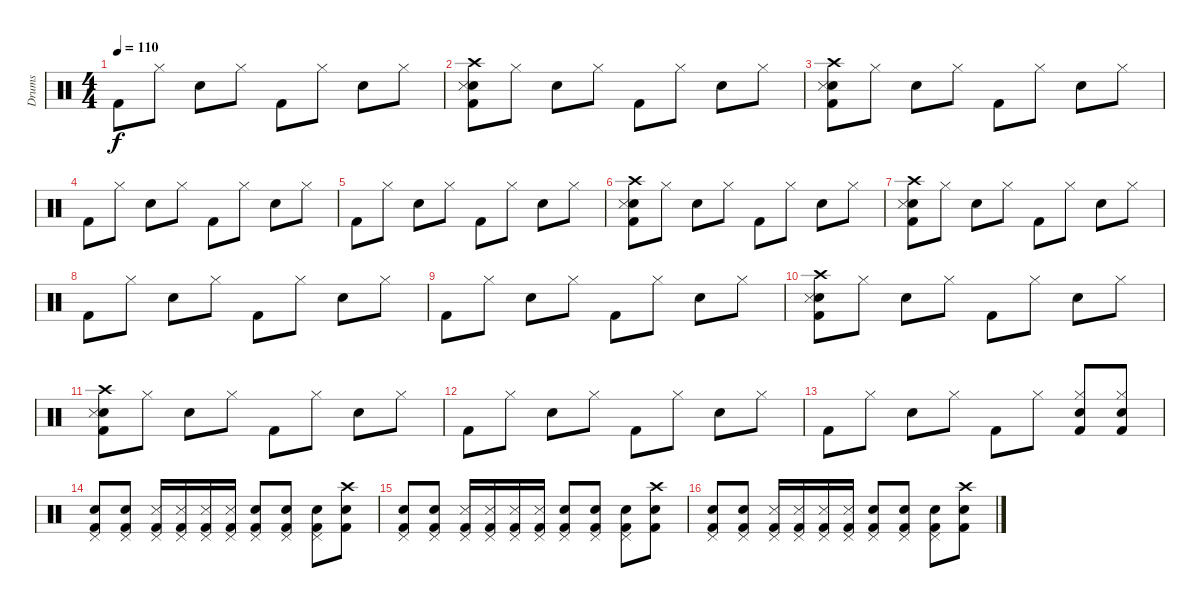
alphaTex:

\track ("Drums" "Drums") {instrument percussion}
\staff {score}
\articulation defaults
\ts (4 4)
\tempo 110
\clef neutral
\ks c "Kick (hit) 2".8{dy f} "Hi-Hat (closed)".8 "Snare (hit) 2".8 "Hi-Hat (closed)".8 "Kick (hit) 2".8 "Hi-Hat (closed)".8 "Snare (hit) 2".8 "Hi-Hat (closed)".8
|
("Kick (hit) 2" "Snare (hit) 2" "Crash high (hit)" "Snare (side stick) 3").8 "Hi-Hat (closed)".8 "Snare (hit) 2".8 "Hi-Hat (closed)".8 "Kick (hit) 2".8 "Hi-Hat (closed)".8 "Snare (hit) 2".8 "Hi-Hat (closed)".8 |
("Kick (hit) 2" "Snare (hit) 2" "Crash high (hit)" "Snare (side stick) 3").8 "Hi-Hat (closed)".8 "Snare (hit) 2".8 "Hi-Hat (closed)".8 "Kick (hit) 2".8 "Hi-Hat (closed)".8 "Snare (hit) 2".8 "Hi-Hat (closed)".8 |
"Kick (hit) 2".8 "Hi-Hat (closed)".8 "Snare (hit) 2".8 "Hi-Hat (closed)".8 "Kick (hit) 2".8 "Hi-Hat (closed)".8 "Snare (hit) 2".8 "Hi-Hat (closed)".8 |
"Kick (hit) 2".8 "Hi-Hat (closed)".8 "Snare (hit) 2".8 "Hi-Hat (closed)".8 "Kick (hit) 2".8 "Hi-Hat (closed)".8 "Snare (hit) 2".8 "Hi-Hat (closed)".8 |
("Kick (hit) 2" "Snare (hit) 2" "Crash high (hit)" "Snare (side stick) 3").8 "Hi-Hat (closed)".8 "Snare (hit) 2".8 "Hi-Hat (closed)".8 "Kick (hit) 2".8 "Hi-Hat (closed)".8 "Snare (hit) 2".8 "Hi-Hat (closed)".8 |
("Kick (hit) 2" "Snare (hit) 2" "Crash high (hit)" "Snare (side stick) 3").8 "Hi-Hat (closed)".8 "Snare (hit) 2".8 "Hi-Hat (closed)".8 "Kick (hit) 2".8 "Hi-Hat (closed)".8 "Snare (hit) 2".8 "Hi-Hat (closed)".8 |
"Kick (hit) 2".8 "Hi-Hat (closed)".8 "Snare (hit) 2".8 "Hi-Hat (closed)".8 "Kick (hit) 2".8 "Hi-Hat (closed)".8 "Snare (hit) 2".8 "Hi-Hat (closed)".8 |
"Kick (hit) 2".8 "Hi-Hat (closed)".8 "Snare (hit) 2".8 "Hi-Hat (closed)".8 "Kick (hit) 2".8 "Hi-Hat (closed)".8 "Snare (hit) 2".8 "Hi-Hat (closed)".8 |
("Kick (hit) 2" "Snare (hit) 2" "Crash high (hit)" "Snare (side stick) 3").8 "Hi-Hat (closed)".8 "Snare (hit) 2".8 "Hi-Hat (closed)".8 "Kick (hit) 2".8 "Hi-Hat (closed)".8 "Snare (hit) 2".8 "Hi-Hat (closed)".8 |
("Kick (hit) 2" "Snare (hit) 2" "Crash high (hit)" "Snare (side stick) 3").8 "Hi-Hat (closed)".8 "Snare (hit) 2".8 "Hi-Hat (closed)".8 "Kick (hit) 2".8 "Hi-Hat (closed)".8 "Snare (hit) 2".8 "Hi-Hat (closed)".8 |
"Kick (hit) 2".8 "Hi-Hat (closed)".8 "Snare (hit) 2".8 "Hi-Hat (closed)".8 "Kick (hit) 2".8 "Hi-Hat (closed)".8 "Snare (hit) 2".8 "Hi-Hat (closed)".8 |
"Kick (hit) 2".8 "Hi-Hat (closed)".8 "Snare (hit) 2".8 "Hi-Hat (closed)".8 "Kick (hit) 2".8 "Hi-Hat (closed)".8 ("Kick (hit) 2" "Hi-Hat (closed)" "Snare (hit) 2").8 ("Kick (hit) 2" "Hi-Hat (closed)" "Snare (hit) 2").8 |
("Kick (hit) 2" "Snare (hit) 2" "Pedal Hi-Hat (hit)").8 ("Kick (hit) 2" "Snare (hit) 2" "Pedal Hi-Hat (hit)").8 ("Kick (hit) 2" "Snare (side stick) 3" "Pedal Hi-Hat (hit)").16 ("Kick (hit) 2" "Snare (side stick) 3" "Pedal Hi-Hat (hit)").16 ("Kick (hit) 2" "Snare (side stick) 3" "Pedal Hi-Hat (hit)").16 ("Kick (hit) 2" "Snare (side stick) 3" "Pedal Hi-Hat (hit)").16 ("Kick (hit) 2" "Snare (hit) 2" "Pedal Hi-Hat (hit)").8 ("Kick (hit) 2" "Snare (hit) 2" "Pedal Hi-Hat (hit)").8 ("Kick (hit) 2" "Snare (hit) 2" "Pedal Hi-Hat (hit)").8 ("Kick (hit) 2" "Snare (hit) 2" "Crash high (hit)").8 |
("Kick (hit) 2" "Snare (hit) 2" "Pedal Hi-Hat (hit)").8 ("Kick (hit) 2" "Snare (hit) 2" "Pedal Hi-Hat (hit)").8 ("Kick (hit) 2" "Snare (side stick) 3" "Pedal Hi-Hat (hit)").16 ("Kick (hit) 2" "Snare (side stick) 3" "Pedal Hi-Hat (hit)").16 ("Kick (hit) 2" "Snare (side stick) 3" "Pedal Hi-Hat (hit)").16 ("Kick (hit) 2" "Snare (side stick) 3" "Pedal Hi-Hat (hit)").16 ("Kick (hit) 2" "Snare (hit) 2" "Pedal Hi-Hat (hit)").8 ("Kick (hit) 2" "Snare (hit) 2" "Pedal Hi-Hat (hit)").8 ("Kick (hit) 2" "Snare (hit) 2" "Pedal Hi-Hat (hit)").8 ("Kick (hit) 2" "Snare (hit) 2" "Crash high (hit)").8 |
("Kick (hit) 2" "Snare (hit) 2" "Pedal Hi-Hat (hit)").8 ("Kick (hit) 2" "Snare (hit) 2" "Pedal Hi-Hat (hit)").8 ("Kick (hit) 2" "Snare (side stick) 3" "Pedal Hi-Hat (hit)").16 ("Kick (hit) 2" "Snare (side stick) 3" "Pedal Hi-Hat (hit)").16 ("Kick (hit) 2" "Snare (side stick) 3" "Pedal Hi-Hat (hit)").16 ("Kick (hit) 2" "Snare (side stick) 3" "Pedal Hi-Hat (hit)").16 ("Kick (hit) 2" "Snare (hit) 2" "Pedal Hi-Hat (hit)").8 ("Kick (hit) 2" "Snare (hit) 2" "Pedal Hi-Hat (hit)").8 ("Kick (hit) 2" "Snare (hit) 2" "Pedal Hi-Hat (hit)").8 ("Kick (hit) 2" "Snare (hit) 2" "Crash high (hit)").8
